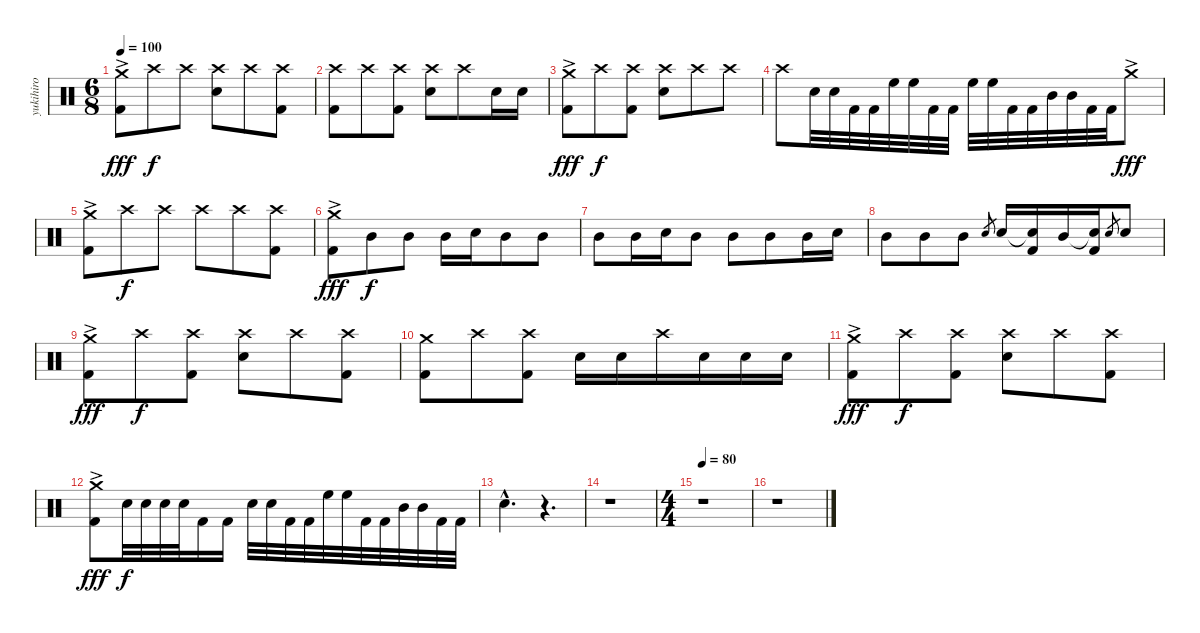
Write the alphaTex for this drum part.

\track ("yukihiro" "yukihiro") {instrument percussion}
\staff {score}
\articulation defaults
\ts (6 8)
\tempo 100
\clef neutral
\ks c
("Crash medium (hit)"{ac} "Kick (hit) 2").8{dy fff} "Crash high (hit)".8{dy f} "Crash high (hit)".8 ("Crash high (hit)" "Snare (hit) 2").8 "Crash high (hit)".8 ("Crash high (hit)" "Kick (hit) 2").8 |
("Crash high (hit)" "Kick (hit) 2").8 "Crash high (hit)".8 ("Crash high (hit)" "Kick (hit) 2").8 ("Crash high (hit)" "Snare (hit) 2").8 "Crash high (hit)".8 "Snare (hit) 2".16 "Snare (hit) 2".16 |
("Crash medium (hit)"{ac} "Kick (hit) 2").8{dy fff} "Crash high (hit)".8{dy f} ("Crash high (hit)" "Kick (hit) 2").8 ("Crash high (hit)" "Snare (hit) 2").8 "Crash high (hit)".8 "Crash high (hit)".8 |
"Crash high (hit)".8 "Snare (hit) 2".32 "Snare (hit) 2".32 "Kick (hit) 2".32 "Kick (hit) 2".32 "High Floor Tom (hit)".32 "High Floor Tom (hit)".32 "Kick (hit) 2".32 "Kick (hit) 2".32 "High Floor Tom (hit)".32 "High Floor Tom (hit)".32 "Kick (hit) 2".32 "Kick (hit) 2".32 "Mid Tom (hit)".32 "Mid Tom (hit)".32 "Kick (hit) 2".32 "Kick (hit) 2".32 "Crash medium (hit)"{ac}.8{dy fff} |
("Crash medium (hit)"{ac} "Kick (hit) 2").8 "Crash high (hit)".8{dy f} "Crash high (hit)".8 "Crash high (hit)".8 "Crash high (hit)".8 ("Crash high (hit)" "Kick (hit) 2").8 |
("Crash medium (hit)"{ac} "Kick (hit) 2").8{dy fff} "Mid Tom (hit)".8{dy f} "Mid Tom (hit)".8 "Mid Tom (hit)".16 "Snare (hit) 2".16 "Mid Tom (hit)".8 "Mid Tom (hit)".8 |
"Mid Tom (hit)".8 "Mid Tom (hit)".16 "Snare (hit) 2".16 "Mid Tom (hit)".8 "Mid Tom (hit)".8 "Mid Tom (hit)".8 "Mid Tom (hit)".16 "Snare (hit) 2".16 |
"Mid Tom (hit)".8 "Mid Tom (hit)".8 "Mid Tom (hit)".8 "Snare (hit) 2".8{gr} "Snare (hit) 2".16 ("Snare (hit)"{t} "Kick (hit) 2").16 "Mid Tom (hit)".16 ("Snare (hit)"{t} "Kick (hit) 2").16 "Snare (hit) 2".8{gr} "Snare (hit) 2".8 |
("Crash medium (hit)"{ac} "Kick (hit) 2").8{dy fff} "Crash high (hit)".8{dy f} ("Crash high (hit)" "Kick (hit) 2").8 ("Crash high (hit)" "Snare (hit) 2").8 "Crash high (hit)".8 ("Crash high (hit)" "Kick (hit) 2").8 |
("Crash medium (hit)" "Kick (hit) 2").8 "Crash high (hit)".8 ("Crash high (hit)" "Kick (hit) 2").8 "Snare (hit) 2".16 "Snare (hit) 2".16 "Crash high (hit)".16 "Snare (hit) 2".16 "Snare (hit) 2".16 "Snare (hit) 2".16 |
("Crash medium (hit)"{ac} "Kick (hit) 2").8{dy fff} "Crash high (hit)".8{dy f} ("Crash high (hit)" "Kick (hit) 2").8 ("Crash high (hit)" "Snare (hit) 2").8 "Crash high (hit)".8 ("Crash high (hit)" "Kick (hit) 2").8 |
("Crash medium (hit)"{ac} "Kick (hit) 2").8{dy fff} "Snare (hit) 2".32{dy f} "Snare (hit) 2".32 "Snare (hit) 2".32 "Snare (hit) 2".32 "Kick (hit) 2".16 "Kick (hit) 2".16 "Snare (hit) 2".32 "Snare (hit) 2".32 "Kick (hit) 2".32 "Kick (hit) 2".32 "High Floor Tom (hit)".32 "High Floor Tom (hit)".32 "Kick (hit) 2".32 "Kick (hit) 2".32 "Mid Tom (hit)".32 "Mid Tom (hit)".32 "Kick (hit) 2".32 "Kick (hit) 2".32 |
"Snare (hit) 2"{hac}.4{d} r.4{d} |
r.1 |
\ts (4 4)
\tempo 80
r.1 |
r.1
